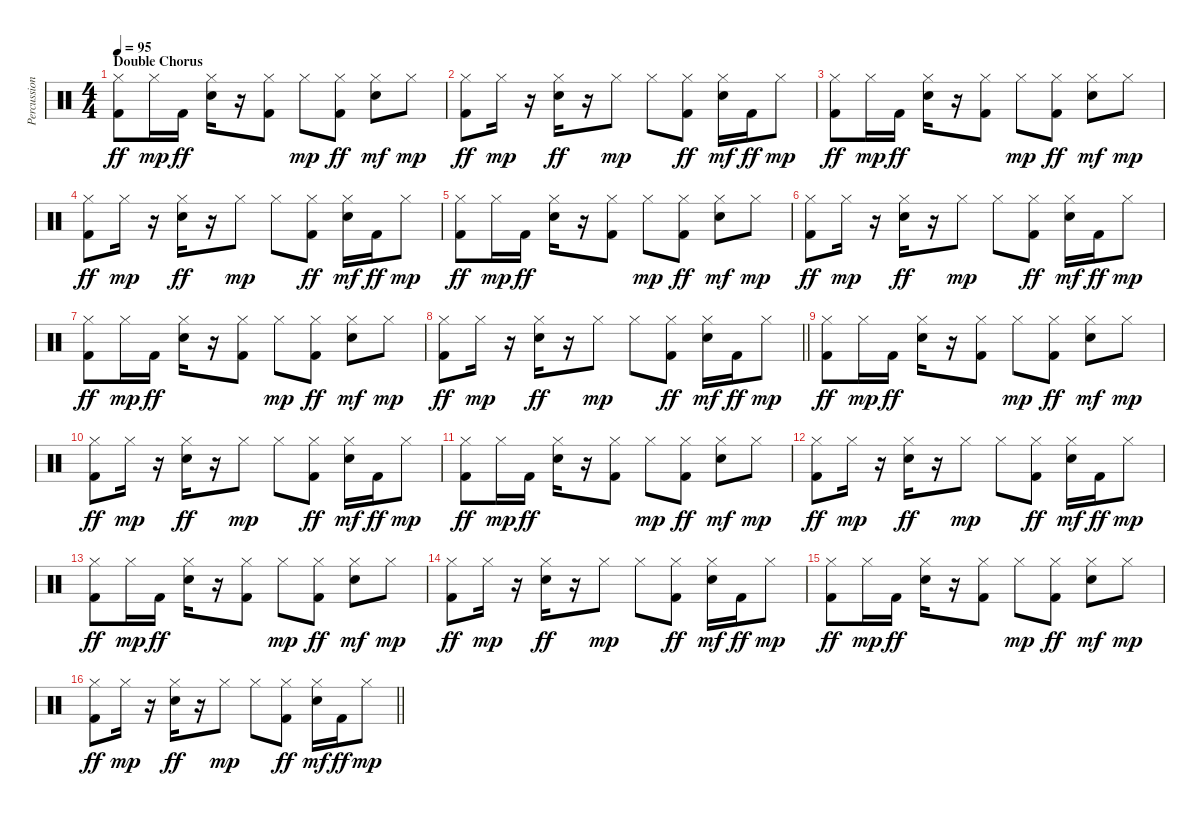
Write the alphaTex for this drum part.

\track ("Percussion" "Percussion") {instrument percussion}
\staff {score}
\articulation defaults
\ts (4 4)
\section ("" "Double Chorus")
\tempo 95
\clef neutral
\ks c
("Hi-Hat (closed)" "Kick (hit) 2").8{dy ff} "Hi-Hat (closed)".16{dy mp} "Kick (hit) 2".16{dy ff} ("Hi-Hat (closed)" "Snare (hit) 2").16 r.16 ("Hi-Hat (closed)" "Kick (hit) 2").8 "Hi-Hat (closed)".8{dy mp} ("Hi-Hat (closed)" "Kick (hit) 2").8{dy ff} ("Hi-Hat (closed)" "Snare (hit) 2").8{dy mf} "Hi-Hat (closed)".8{dy mp} |
("Hi-Hat (closed)" "Kick (hit) 2").8{dy ff} "Hi-Hat (closed)".16{dy mp} r.16 ("Hi-Hat (closed)" "Snare (hit) 2").16{dy ff} r.16 "Hi-Hat (closed)".8{dy mp} "Hi-Hat (closed)".8 ("Hi-Hat (closed)" "Kick (hit) 2").8{dy ff} ("Hi-Hat (closed)" "Snare (hit) 2").16{dy mf} "Kick (hit) 2".16{dy ff} "Hi-Hat (closed)".8{dy mp} |
("Hi-Hat (closed)" "Kick (hit) 2").8{dy ff} "Hi-Hat (closed)".16{dy mp} "Kick (hit) 2".16{dy ff} ("Hi-Hat (closed)" "Snare (hit) 2").16 r.16 ("Hi-Hat (closed)" "Kick (hit) 2").8 "Hi-Hat (closed)".8{dy mp} ("Hi-Hat (closed)" "Kick (hit) 2").8{dy ff} ("Hi-Hat (closed)" "Snare (hit) 2").8{dy mf} "Hi-Hat (closed)".8{dy mp} |
("Hi-Hat (closed)" "Kick (hit) 2").8{dy ff} "Hi-Hat (closed)".16{dy mp} r.16 ("Hi-Hat (closed)" "Snare (hit) 2").16{dy ff} r.16 "Hi-Hat (closed)".8{dy mp} "Hi-Hat (closed)".8 ("Hi-Hat (closed)" "Kick (hit) 2").8{dy ff} ("Hi-Hat (closed)" "Snare (hit) 2").16{dy mf} "Kick (hit) 2".16{dy ff} "Hi-Hat (closed)".8{dy mp} |
("Hi-Hat (closed)" "Kick (hit) 2").8{dy ff} "Hi-Hat (closed)".16{dy mp} "Kick (hit) 2".16{dy ff} ("Hi-Hat (closed)" "Snare (hit) 2").16 r.16 ("Hi-Hat (closed)" "Kick (hit) 2").8 "Hi-Hat (closed)".8{dy mp} ("Hi-Hat (closed)" "Kick (hit) 2").8{dy ff} ("Hi-Hat (closed)" "Snare (hit) 2").8{dy mf} "Hi-Hat (closed)".8{dy mp} |
("Hi-Hat (closed)" "Kick (hit) 2").8{dy ff} "Hi-Hat (closed)".16{dy mp} r.16 ("Hi-Hat (closed)" "Snare (hit) 2").16{dy ff} r.16 "Hi-Hat (closed)".8{dy mp} "Hi-Hat (closed)".8 ("Hi-Hat (closed)" "Kick (hit) 2").8{dy ff} ("Hi-Hat (closed)" "Snare (hit) 2").16{dy mf} "Kick (hit) 2".16{dy ff} "Hi-Hat (closed)".8{dy mp} |
("Hi-Hat (closed)" "Kick (hit) 2").8{dy ff} "Hi-Hat (closed)".16{dy mp} "Kick (hit) 2".16{dy ff} ("Hi-Hat (closed)" "Snare (hit) 2").16 r.16 ("Hi-Hat (closed)" "Kick (hit) 2").8 "Hi-Hat (closed)".8{dy mp} ("Hi-Hat (closed)" "Kick (hit) 2").8{dy ff} ("Hi-Hat (closed)" "Snare (hit) 2").8{dy mf} "Hi-Hat (closed)".8{dy mp} |
\barLineRight lightlight
("Hi-Hat (closed)" "Kick (hit) 2").8{dy ff} "Hi-Hat (closed)".16{dy mp} r.16 ("Hi-Hat (closed)" "Snare (hit) 2").16{dy ff} r.16 "Hi-Hat (closed)".8{dy mp} "Hi-Hat (closed)".8 ("Hi-Hat (closed)" "Kick (hit) 2").8{dy ff} ("Hi-Hat (closed)" "Snare (hit) 2").16{dy mf} "Kick (hit) 2".16{dy ff} "Hi-Hat (closed)".8{dy mp} |
("Hi-Hat (closed)" "Kick (hit) 2").8{dy ff} "Hi-Hat (closed)".16{dy mp} "Kick (hit) 2".16{dy ff} ("Hi-Hat (closed)" "Snare (hit) 2").16 r.16 ("Hi-Hat (closed)" "Kick (hit) 2").8 "Hi-Hat (closed)".8{dy mp} ("Hi-Hat (closed)" "Kick (hit) 2").8{dy ff} ("Hi-Hat (closed)" "Snare (hit) 2").8{dy mf} "Hi-Hat (closed)".8{dy mp} |
("Hi-Hat (closed)" "Kick (hit) 2").8{dy ff} "Hi-Hat (closed)".16{dy mp} r.16 ("Hi-Hat (closed)" "Snare (hit) 2").16{dy ff} r.16 "Hi-Hat (closed)".8{dy mp} "Hi-Hat (closed)".8 ("Hi-Hat (closed)" "Kick (hit) 2").8{dy ff} ("Hi-Hat (closed)" "Snare (hit) 2").16{dy mf} "Kick (hit) 2".16{dy ff} "Hi-Hat (closed)".8{dy mp} |
("Hi-Hat (closed)" "Kick (hit) 2").8{dy ff} "Hi-Hat (closed)".16{dy mp} "Kick (hit) 2".16{dy ff} ("Hi-Hat (closed)" "Snare (hit) 2").16 r.16 ("Hi-Hat (closed)" "Kick (hit) 2").8 "Hi-Hat (closed)".8{dy mp} ("Hi-Hat (closed)" "Kick (hit) 2").8{dy ff} ("Hi-Hat (closed)" "Snare (hit) 2").8{dy mf} "Hi-Hat (closed)".8{dy mp} |
("Hi-Hat (closed)" "Kick (hit) 2").8{dy ff} "Hi-Hat (closed)".16{dy mp} r.16 ("Hi-Hat (closed)" "Snare (hit) 2").16{dy ff} r.16 "Hi-Hat (closed)".8{dy mp} "Hi-Hat (closed)".8 ("Hi-Hat (closed)" "Kick (hit) 2").8{dy ff} ("Hi-Hat (closed)" "Snare (hit) 2").16{dy mf} "Kick (hit) 2".16{dy ff} "Hi-Hat (closed)".8{dy mp} |
("Hi-Hat (closed)" "Kick (hit) 2").8{dy ff} "Hi-Hat (closed)".16{dy mp} "Kick (hit) 2".16{dy ff} ("Hi-Hat (closed)" "Snare (hit) 2").16 r.16 ("Hi-Hat (closed)" "Kick (hit) 2").8 "Hi-Hat (closed)".8{dy mp} ("Hi-Hat (closed)" "Kick (hit) 2").8{dy ff} ("Hi-Hat (closed)" "Snare (hit) 2").8{dy mf} "Hi-Hat (closed)".8{dy mp} |
("Hi-Hat (closed)" "Kick (hit) 2").8{dy ff} "Hi-Hat (closed)".16{dy mp} r.16 ("Hi-Hat (closed)" "Snare (hit) 2").16{dy ff} r.16 "Hi-Hat (closed)".8{dy mp} "Hi-Hat (closed)".8 ("Hi-Hat (closed)" "Kick (hit) 2").8{dy ff} ("Hi-Hat (closed)" "Snare (hit) 2").16{dy mf} "Kick (hit) 2".16{dy ff} "Hi-Hat (closed)".8{dy mp} |
("Hi-Hat (closed)" "Kick (hit) 2").8{dy ff} "Hi-Hat (closed)".16{dy mp} "Kick (hit) 2".16{dy ff} ("Hi-Hat (closed)" "Snare (hit) 2").16 r.16 ("Hi-Hat (closed)" "Kick (hit) 2").8 "Hi-Hat (closed)".8{dy mp} ("Hi-Hat (closed)" "Kick (hit) 2").8{dy ff} ("Hi-Hat (closed)" "Snare (hit) 2").8{dy mf} "Hi-Hat (closed)".8{dy mp} |
\barLineRight lightlight
("Hi-Hat (closed)" "Kick (hit) 2").8{dy ff} "Hi-Hat (closed)".16{dy mp} r.16 ("Hi-Hat (closed)" "Snare (hit) 2").16{dy ff} r.16 "Hi-Hat (closed)".8{dy mp} "Hi-Hat (closed)".8 ("Hi-Hat (closed)" "Kick (hit) 2").8{dy ff} ("Hi-Hat (closed)" "Snare (hit) 2").16{dy mf} "Kick (hit) 2".16{dy ff} "Hi-Hat (closed)".8{dy mp}
